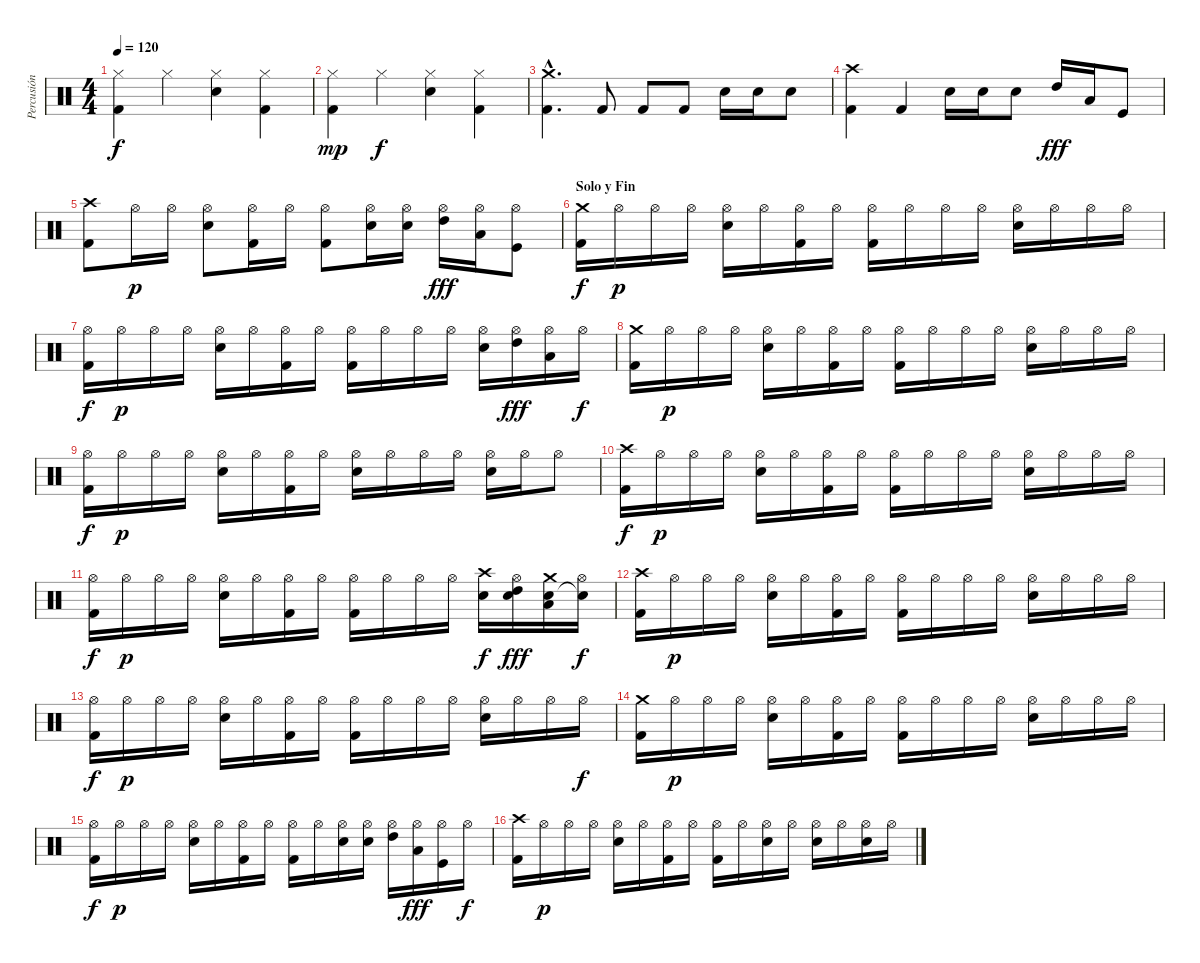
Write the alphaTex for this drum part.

\track ("Percusión" "Percusión") {instrument percussion}
\staff {score}
\articulation defaults
\ts (4 4)
\tempo 120
\clef neutral
\ks c
("Hi-Hat (closed)" "Kick (hit) 2").4{dy f} "Hi-Hat (closed)".4 ("Hi-Hat (closed)" "Snare (hit) 2").4 ("Hi-Hat (closed)" "Kick (hit) 2").4 |
("Hi-Hat (closed)" "Kick (hit) 2").4{dy mp} "Hi-Hat (closed)".4{dy f} ("Hi-Hat (closed)" "Snare (hit) 2").4 ("Hi-Hat (closed)" "Kick (hit) 2").4 |
("Kick (hit) 2"{hac} "Crash medium (hit)"{hac}).4{d} "Kick (hit) 2".8 "Kick (hit) 2".8 "Kick (hit) 2".8 "Snare (hit) 2".16 "Snare (hit) 2".16 "Snare (hit) 2".8 |
("Kick (hit) 2" "Crash high (hit)").4 "Kick (hit) 2".4 "Snare (hit) 2".16 "Snare (hit) 2".16 "Snare (hit) 2".8 "High Tom (hit)".16{dy fff} "Low Tom (hit)".16 "Kick (hit)".8 |
("Crash high (hit)" "Kick (hit) 2").8 "Hi-Hat (open)".16{dy p} "Hi-Hat (open)".16 ("Hi-Hat (open)" "Snare (hit) 2").8 ("Hi-Hat (open)" "Kick (hit) 2").16 "Hi-Hat (open)".16 ("Hi-Hat (open)" "Kick (hit) 2").8 ("Hi-Hat (open)" "Snare (hit) 2").16 ("Hi-Hat (open)" "Snare (hit) 2").16 ("Hi-Hat (open)" "High Tom (hit)").16{dy fff} ("Hi-Hat (open)" "Low Tom (hit)").16 ("Hi-Hat (open)" "Kick (hit)").8 |
\section ("" "Solo y Fin")
("Crash medium (hit)" "Kick (hit) 2").16{dy f} "Hi-Hat (open)".16{dy p} "Hi-Hat (open)".16 "Hi-Hat (open)".16 ("Hi-Hat (open)" "Snare (hit) 2").16 "Hi-Hat (open)".16 ("Hi-Hat (open)" "Kick (hit) 2").16 "Hi-Hat (open)".16 ("Hi-Hat (open)" "Kick (hit) 2").16 "Hi-Hat (open)".16 "Hi-Hat (open)".16 "Hi-Hat (open)".16 ("Hi-Hat (open)" "Snare (hit) 2").16 "Hi-Hat (open)".16 "Hi-Hat (open)".16 "Hi-Hat (open)".16 |
("Hi-Hat (open)" "Kick (hit) 2").16{dy f} "Hi-Hat (open)".16{dy p} "Hi-Hat (open)".16 "Hi-Hat (open)".16 ("Hi-Hat (open)" "Snare (hit) 2").16 "Hi-Hat (open)".16 ("Hi-Hat (open)" "Kick (hit) 2").16 "Hi-Hat (open)".16 ("Hi-Hat (open)" "Kick (hit) 2").16 "Hi-Hat (open)".16 "Hi-Hat (open)".16 "Hi-Hat (open)".16 ("Hi-Hat (open)" "Snare (hit) 2").16 ("Hi-Hat (open)" "High Tom (hit)").16{dy fff} ("Hi-Hat (open)" "Low Tom (hit)").16 "Hi-Hat (open)".16{dy f} |
("Crash medium (hit)" "Kick (hit) 2").16 "Hi-Hat (open)".16{dy p} "Hi-Hat (open)".16 "Hi-Hat (open)".16 ("Hi-Hat (open)" "Snare (hit) 2").16 "Hi-Hat (open)".16 ("Hi-Hat (open)" "Kick (hit) 2").16 "Hi-Hat (open)".16 ("Hi-Hat (open)" "Kick (hit) 2").16 "Hi-Hat (open)".16 "Hi-Hat (open)".16 "Hi-Hat (open)".16 ("Hi-Hat (open)" "Snare (hit) 2").16 "Hi-Hat (open)".16 "Hi-Hat (open)".16 "Hi-Hat (open)".16 |
("Hi-Hat (open)" "Kick (hit) 2").16{dy f} "Hi-Hat (open)".16{dy p} "Hi-Hat (open)".16 "Hi-Hat (open)".16 ("Hi-Hat (open)" "Snare (hit) 2").16 "Hi-Hat (open)".16 ("Hi-Hat (open)" "Kick (hit) 2").16 "Hi-Hat (open)".16 ("Hi-Hat (open)" "Snare (hit) 2").16 "Hi-Hat (open)".16 "Hi-Hat (open)".16 "Hi-Hat (open)".16 ("Hi-Hat (open)" "Snare (hit) 2").16 "Hi-Hat (open)".16 "Hi-Hat (open)".8 |
("Crash high (hit)" "Kick (hit) 2").16{dy f} "Hi-Hat (open)".16{dy p} "Hi-Hat (open)".16 "Hi-Hat (open)".16 ("Hi-Hat (open)" "Snare (hit) 2").16 "Hi-Hat (open)".16 ("Hi-Hat (open)" "Kick (hit) 2").16 "Hi-Hat (open)".16 ("Hi-Hat (open)" "Kick (hit) 2").16 "Hi-Hat (open)".16 "Hi-Hat (open)".16 "Hi-Hat (open)".16 ("Hi-Hat (open)" "Snare (hit) 2").16 "Hi-Hat (open)".16 "Hi-Hat (open)".16 "Hi-Hat (open)".16 |
("Hi-Hat (open)" "Kick (hit) 2").16{dy f} "Hi-Hat (open)".16{dy p} "Hi-Hat (open)".16 "Hi-Hat (open)".16 ("Hi-Hat (open)" "Snare (hit) 2").16 "Hi-Hat (open)".16 ("Hi-Hat (open)" "Kick (hit) 2").16 "Hi-Hat (open)".16 ("Hi-Hat (open)" "Kick (hit) 2").16 "Hi-Hat (open)".16 "Hi-Hat (open)".16 "Hi-Hat (open)".16 ("Snare (hit) 2" "Crash high (hit)").16{dy f} ("Hi-Hat (open)" "High Tom (hit)" "Snare (hit)").16{dy fff} ("Low Tom (hit)" "Snare (hit) 2" "Crash medium (hit)").16 ("Hi-Hat (open)" "Snare (hit)"{t}).16{dy f} |
("Crash high (hit)" "Kick (hit) 2").16 "Hi-Hat (open)".16{dy p} "Hi-Hat (open)".16 "Hi-Hat (open)".16 ("Hi-Hat (open)" "Snare (hit) 2").16 "Hi-Hat (open)".16 ("Hi-Hat (open)" "Kick (hit) 2").16 "Hi-Hat (open)".16 ("Hi-Hat (open)" "Kick (hit) 2").16 "Hi-Hat (open)".16 "Hi-Hat (open)".16 "Hi-Hat (open)".16 ("Hi-Hat (open)" "Snare (hit) 2").16 "Hi-Hat (open)".16 "Hi-Hat (open)".16 "Hi-Hat (open)".16 |
("Hi-Hat (open)" "Kick (hit) 2").16{dy f} "Hi-Hat (open)".16{dy p} "Hi-Hat (open)".16 "Hi-Hat (open)".16 ("Hi-Hat (open)" "Snare (hit) 2").16 "Hi-Hat (open)".16 ("Hi-Hat (open)" "Kick (hit) 2").16 "Hi-Hat (open)".16 ("Hi-Hat (open)" "Kick (hit) 2").16 "Hi-Hat (open)".16 "Hi-Hat (open)".16 "Hi-Hat (open)".16 ("Hi-Hat (open)" "Snare (hit) 2").16 "Hi-Hat (open)".16 "Hi-Hat (open)".16 "Hi-Hat (open)".16{dy f} |
("Crash medium (hit)" "Kick (hit) 2").16 "Hi-Hat (open)".16{dy p} "Hi-Hat (open)".16 "Hi-Hat (open)".16 ("Hi-Hat (open)" "Snare (hit) 2").16 "Hi-Hat (open)".16 ("Hi-Hat (open)" "Kick (hit) 2").16 "Hi-Hat (open)".16 ("Hi-Hat (open)" "Kick (hit) 2").16 "Hi-Hat (open)".16 "Hi-Hat (open)".16 "Hi-Hat (open)".16 ("Hi-Hat (open)" "Snare (hit) 2").16 "Hi-Hat (open)".16 "Hi-Hat (open)".16 "Hi-Hat (open)".16 |
("Hi-Hat (open)" "Kick (hit) 2").16{dy f} "Hi-Hat (open)".16{dy p} "Hi-Hat (open)".16 "Hi-Hat (open)".16 ("Hi-Hat (open)" "Snare (hit) 2").16 "Hi-Hat (open)".16 ("Hi-Hat (open)" "Kick (hit) 2").16 "Hi-Hat (open)".16 ("Hi-Hat (open)" "Kick (hit) 2").16 "Hi-Hat (open)".16 ("Hi-Hat (open)" "Snare (hit) 2").16 ("Hi-Hat (open)" "Snare (hit) 2").16 ("Hi-Hat (open)" "High Tom (hit)").16 ("Hi-Hat (open)" "Low Tom (hit)").16{dy fff} ("Hi-Hat (open)" "Kick (hit)").16 "Hi-Hat (open)".16{dy f} |
("Crash high (hit)" "Kick (hit) 2").16 "Hi-Hat (open)".16{dy p} "Hi-Hat (open)".16 "Hi-Hat (open)".16 ("Hi-Hat (open)" "Snare (hit) 2").16 "Hi-Hat (open)".16 ("Hi-Hat (open)" "Kick (hit) 2").16 "Hi-Hat (open)".16 ("Hi-Hat (open)" "Kick (hit) 2").16 "Hi-Hat (open)".16 ("Hi-Hat (open)" "Snare (hit) 2").16 "Hi-Hat (open)".16 ("Hi-Hat (open)" "Snare (hit) 2").16 "Hi-Hat (open)".16 ("Hi-Hat (open)" "Snare (hit) 2").16 "Hi-Hat (open)".16
